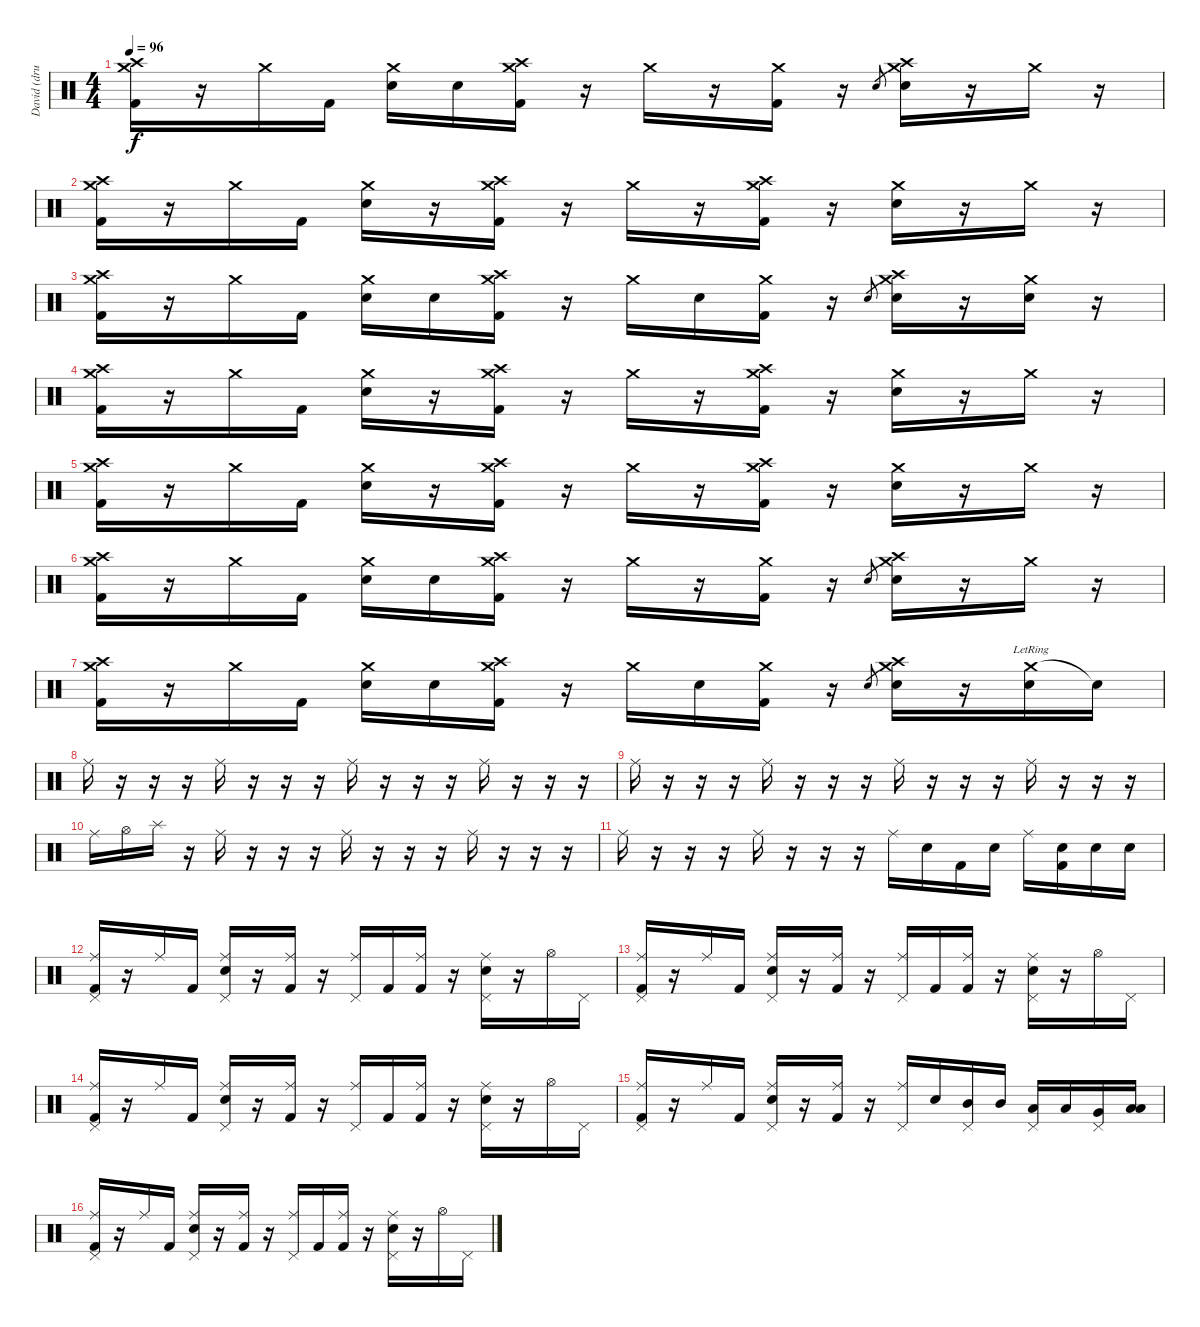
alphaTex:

\track ("David (drums)" "David (dru") {instrument percussion}
\staff {score}
\articulation defaults
\ts (4 4)
\tempo 96
\clef neutral
\ks c
("Crash high (hit)" "Crash medium (hit)" "Kick (hit) 2").16{dy f} r.16 "Crash medium (hit)".16 "Kick (hit) 2".16 ("Crash medium (hit)" "Electric Snare (hit)").16 "Electric Snare (hit)".16 ("Crash high (hit)" "Crash medium (hit)" "Kick (hit) 2").16 r.16 "Crash medium (hit)".16 r.16 ("Crash medium (hit)" "Kick (hit) 2").16 r.16 "Electric Snare (hit)".8{gr} ("Crash high (hit)" "Crash medium (hit)" "Electric Snare (hit)").16 r.16 "Crash medium (hit)".16 r.16 |
("Crash high (hit)" "Crash medium (hit)" "Kick (hit) 2").16 r.16 "Crash medium (hit)".16 "Kick (hit) 2".16 ("Crash medium (hit)" "Electric Snare (hit)").16 r.16 ("Crash high (hit)" "Crash medium (hit)" "Kick (hit) 2").16 r.16 "Crash medium (hit)".16 r.16 ("Crash high (hit)" "Crash medium (hit)" "Kick (hit) 2").16 r.16 ("Crash medium (hit)" "Electric Snare (hit)").16 r.16 "Crash medium (hit)".16 r.16 |
("Crash high (hit)" "Crash medium (hit)" "Kick (hit) 2").16 r.16 "Crash medium (hit)".16 "Kick (hit) 2".16 ("Crash medium (hit)" "Electric Snare (hit)").16 "Electric Snare (hit)".16 ("Crash high (hit)" "Crash medium (hit)" "Kick (hit) 2").16 r.16 "Crash medium (hit)".16 "Electric Snare (hit)".16 ("Crash medium (hit)" "Kick (hit) 2").16 r.16 "Electric Snare (hit)".8{gr} ("Crash high (hit)" "Crash medium (hit)" "Electric Snare (hit)").16 r.16 ("Crash medium (hit)" "Electric Snare (hit)").16 r.16 |
("Crash high (hit)" "Crash medium (hit)" "Kick (hit) 2").16 r.16 "Crash medium (hit)".16 "Kick (hit) 2".16 ("Crash medium (hit)" "Electric Snare (hit)").16 r.16 ("Crash high (hit)" "Crash medium (hit)" "Kick (hit) 2").16 r.16 "Crash medium (hit)".16 r.16 ("Crash high (hit)" "Crash medium (hit)" "Kick (hit) 2").16 r.16 ("Crash medium (hit)" "Electric Snare (hit)").16 r.16 "Crash medium (hit)".16 r.16 |
("Crash high (hit)" "Crash medium (hit)" "Kick (hit) 2").16 r.16 "Crash medium (hit)".16 "Kick (hit) 2".16 ("Crash medium (hit)" "Electric Snare (hit)").16 r.16 ("Crash high (hit)" "Crash medium (hit)" "Kick (hit) 2").16 r.16 "Crash medium (hit)".16 r.16 ("Crash high (hit)" "Crash medium (hit)" "Kick (hit) 2").16 r.16 ("Crash medium (hit)" "Electric Snare (hit)").16 r.16 "Crash medium (hit)".16 r.16 |
("Crash high (hit)" "Crash medium (hit)" "Kick (hit) 2").16 r.16 "Crash medium (hit)".16 "Kick (hit) 2".16 ("Crash medium (hit)" "Electric Snare (hit)").16 "Electric Snare (hit)".16 ("Crash high (hit)" "Crash medium (hit)" "Kick (hit) 2").16 r.16 "Crash medium (hit)".16 r.16 ("Crash medium (hit)" "Kick (hit) 2").16 r.16 "Electric Snare (hit)".8{gr} ("Crash high (hit)" "Crash medium (hit)" "Electric Snare (hit)").16 r.16 "Crash medium (hit)".16 r.16 |
("Crash high (hit)" "Crash medium (hit)" "Kick (hit) 2").16 r.16 "Crash medium (hit)".16 "Kick (hit) 2".16 ("Crash medium (hit)" "Electric Snare (hit)").16 "Electric Snare (hit)".16 ("Crash high (hit)" "Crash medium (hit)" "Kick (hit) 2").16 r.16 "Crash medium (hit)".16 "Electric Snare (hit)".16 ("Crash medium (hit)" "Kick (hit) 2").16 r.16 "Electric Snare (hit)".8{gr} ("Crash high (hit)" "Crash medium (hit)" "Electric Snare (hit)").16 r.16 ("Crash medium (hit)"{lr} "Electric Snare (hit)").16 "Snare (hit)"{t}.16 |
"Ride (middle)".16 r.16 r.16 r.16 "Ride (middle)".16 r.16 r.16 r.16 "Ride (middle)".16 r.16 r.16 r.16 "Ride (middle)".16 r.16 r.16 r.16 |
"Ride (middle)".16 r.16 r.16 r.16 "Ride (middle)".16 r.16 r.16 r.16 "Ride (middle)".16 r.16 r.16 r.16 "Ride (middle)".16 r.16 r.16 r.16 |
"Ride (middle)".16 "Hi-Hat (open)".16 "Splash (hit)".16 r.16 "Ride (middle)".16 r.16 r.16 r.16 "Ride (middle)".16 r.16 r.16 r.16 "Ride (middle)".16 r.16 r.16 r.16 |
"Ride (middle)".16 r.16 r.16 r.16 "Ride (middle)".16 r.16 r.16 r.16 "Ride (middle)".16 "Electric Snare (hit)".16 "Kick (hit) 2".16 "Electric Snare (hit)".16 "Ride (middle)".16 ("Electric Snare (hit)" "Kick (hit) 2").16 "Electric Snare (hit)".16 "Electric Snare (hit)".16 |
("Ride (middle)" "Pedal Hi-Hat (hit)" "Kick (hit) 2").16 r.16 "Ride (middle)".16 "Kick (hit) 2".16 ("Ride (middle)" "Pedal Hi-Hat (hit)" "Electric Snare (hit)").16 r.16 ("Ride (middle)" "Kick (hit) 2").16 r.16 ("Ride (middle)" "Pedal Hi-Hat (hit)").16 "Kick (hit) 2".16 ("Ride (middle)" "Kick (hit) 2").16 r.16 ("Ride (middle)" "Pedal Hi-Hat (hit)" "Electric Snare (hit)").16 r.16 "Hi-Hat (open)".16 "Pedal Hi-Hat (hit)".16 |
("Ride (middle)" "Pedal Hi-Hat (hit)" "Kick (hit) 2").16 r.16 "Ride (middle)".16 "Kick (hit) 2".16 ("Ride (middle)" "Pedal Hi-Hat (hit)" "Electric Snare (hit)").16 r.16 ("Ride (middle)" "Kick (hit) 2").16 r.16 ("Ride (middle)" "Pedal Hi-Hat (hit)").16 "Kick (hit) 2".16 ("Ride (middle)" "Kick (hit) 2").16 r.16 ("Ride (middle)" "Pedal Hi-Hat (hit)" "Electric Snare (hit)").16 r.16 "Hi-Hat (open)".16 "Pedal Hi-Hat (hit)".16 |
("Ride (middle)" "Pedal Hi-Hat (hit)" "Kick (hit) 2").16 r.16 "Ride (middle)".16 "Kick (hit) 2".16 ("Ride (middle)" "Pedal Hi-Hat (hit)" "Electric Snare (hit)").16 r.16 ("Ride (middle)" "Kick (hit) 2").16 r.16 ("Ride (middle)" "Pedal Hi-Hat (hit)").16 "Kick (hit) 2".16 ("Ride (middle)" "Kick (hit) 2").16 r.16 ("Ride (middle)" "Pedal Hi-Hat (hit)" "Electric Snare (hit)").16 r.16 "Hi-Hat (open)".16 "Pedal Hi-Hat (hit)".16 |
("Ride (middle)" "Pedal Hi-Hat (hit)" "Kick (hit) 2").16 r.16 "Ride (middle)".16 "Kick (hit) 2".16 ("Ride (middle)" "Pedal Hi-Hat (hit)" "Electric Snare (hit)").16 r.16 ("Ride (middle)" "Kick (hit) 2").16 r.16 ("Ride (middle)" "Pedal Hi-Hat (hit)").16 "Electric Snare (hit)".16 ("Pedal Hi-Hat (hit)" "Mid Tom (hit)").16 "Mid Tom (hit)".16 ("Pedal Hi-Hat (hit)" "Low Tom (hit)").16 "Low Tom (hit)".16 ("Pedal Hi-Hat (hit)" "Very Low Tom (hit)").16 ("Low Floor Tom (hit)" "Low Floor Tom (hit)").16 |
("Ride (middle)" "Pedal Hi-Hat (hit)" "Kick (hit) 2").16 r.16 "Ride (middle)".16 "Kick (hit) 2".16 ("Ride (middle)" "Pedal Hi-Hat (hit)" "Electric Snare (hit)").16 r.16 ("Ride (middle)" "Kick (hit) 2").16 r.16 ("Ride (middle)" "Pedal Hi-Hat (hit)").16 "Kick (hit) 2".16 ("Ride (middle)" "Kick (hit) 2").16 r.16 ("Ride (middle)" "Pedal Hi-Hat (hit)" "Electric Snare (hit)").16 r.16 "Hi-Hat (open)".16 "Pedal Hi-Hat (hit)".16
